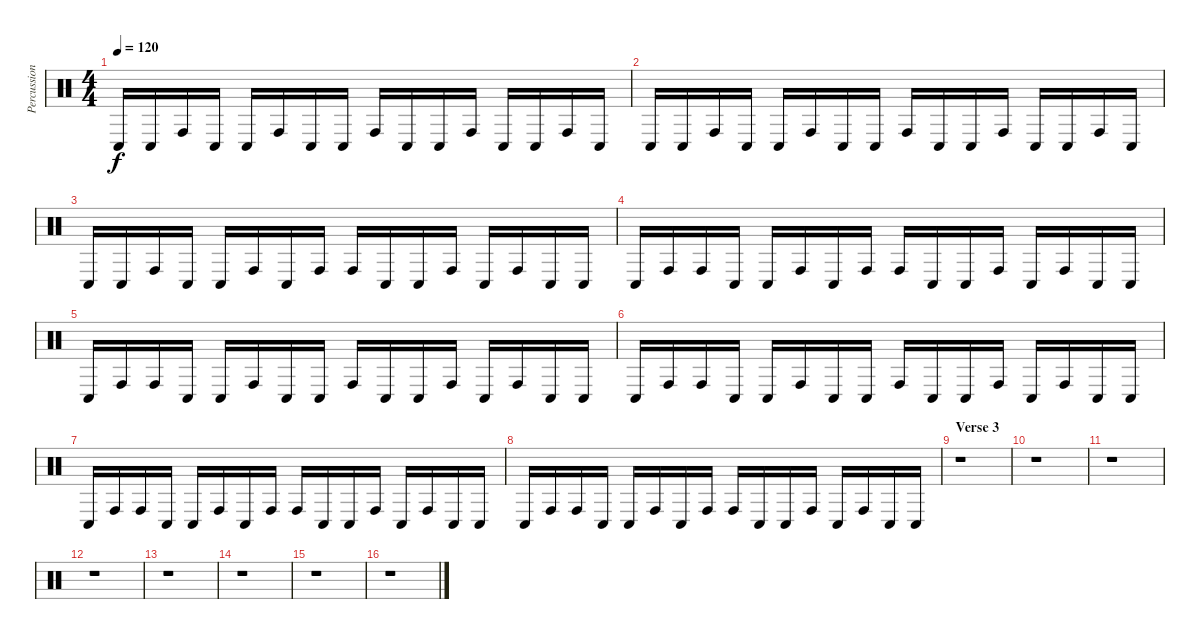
\track ("Percussions" "Percussion") {instrument percussion}
\staff {score}
\articulation defaults
\ts (4 4)
\tempo 120
\clef neutral
\ks c "Conga low (hit)".16{dy f} "Conga low (hit)".16 "Conga high (hit)".16 "Conga low (hit)".16 "Conga low (hit)".16 "Conga high (hit)".16 "Conga low (hit)".16 "Conga low (hit)".16 "Conga high (hit)".16 "Conga low (hit)".16 "Conga low (hit)".16 "Conga high (hit)".16 "Conga low (hit)".16 "Conga low (hit)".16 "Conga high (hit)".16 "Conga low (hit)".16
|
"Conga low (hit)".16 "Conga low (hit)".16 "Conga high (hit)".16 "Conga low (hit)".16 "Conga low (hit)".16 "Conga high (hit)".16 "Conga low (hit)".16 "Conga low (hit)".16 "Conga high (hit)".16 "Conga low (hit)".16 "Conga low (hit)".16 "Conga high (hit)".16 "Conga low (hit)".16 "Conga low (hit)".16 "Conga high (hit)".16 "Conga low (hit)".16 |
"Conga low (hit)".16 "Conga low (hit)".16 "Conga high (hit)".16 "Conga low (hit)".16 "Conga low (hit)".16 "Conga high (hit)".16 "Conga low (hit)".16 "Conga high (hit)".16 "Conga high (hit)".16 "Conga low (hit)".16 "Conga low (hit)".16 "Conga high (hit)".16 "Conga low (hit)".16 "Conga high (hit)".16 "Conga low (hit)".16 "Conga low (hit)".16 |
"Conga low (hit)".16 "Conga high (hit)".16 "Conga high (hit)".16 "Conga low (hit)".16 "Conga low (hit)".16 "Conga high (hit)".16 "Conga low (hit)".16 "Conga high (hit)".16 "Conga high (hit)".16 "Conga low (hit)".16 "Conga low (hit)".16 "Conga high (hit)".16 "Conga low (hit)".16 "Conga high (hit)".16 "Conga low (hit)".16 "Conga low (hit)".16 |
"Conga low (hit)".16 "Conga high (hit)".16 "Conga high (hit)".16 "Conga low (hit)".16 "Conga low (hit)".16 "Conga high (hit)".16 "Conga low (hit)".16 "Conga low (hit)".16 "Conga high (hit)".16 "Conga low (hit)".16 "Conga low (hit)".16 "Conga high (hit)".16 "Conga low (hit)".16 "Conga high (hit)".16 "Conga low (hit)".16 "Conga low (hit)".16 |
"Conga low (hit)".16 "Conga high (hit)".16 "Conga high (hit)".16 "Conga low (hit)".16 "Conga low (hit)".16 "Conga high (hit)".16 "Conga low (hit)".16 "Conga low (hit)".16 "Conga high (hit)".16 "Conga low (hit)".16 "Conga low (hit)".16 "Conga high (hit)".16 "Conga low (hit)".16 "Conga high (hit)".16 "Conga low (hit)".16 "Conga low (hit)".16 |
"Conga low (hit)".16 "Conga high (hit)".16 "Conga high (hit)".16 "Conga low (hit)".16 "Conga low (hit)".16 "Conga high (hit)".16 "Conga low (hit)".16 "Conga high (hit)".16 "Conga high (hit)".16 "Conga low (hit)".16 "Conga low (hit)".16 "Conga high (hit)".16 "Conga low (hit)".16 "Conga high (hit)".16 "Conga low (hit)".16 "Conga low (hit)".16 |
"Conga low (hit)".16 "Conga high (hit)".16 "Conga high (hit)".16 "Conga low (hit)".16 "Conga low (hit)".16 "Conga high (hit)".16 "Conga low (hit)".16 "Conga high (hit)".16 "Conga high (hit)".16 "Conga low (hit)".16 "Conga low (hit)".16 "Conga high (hit)".16 "Conga low (hit)".16 "Conga high (hit)".16 "Conga low (hit)".16 "Conga low (hit)".16 |
\section ("" "Verse 3")
r.1 |
r.1 |
r.1 |
r.1 |
r.1 |
r.1 |
r.1 |
r.1
